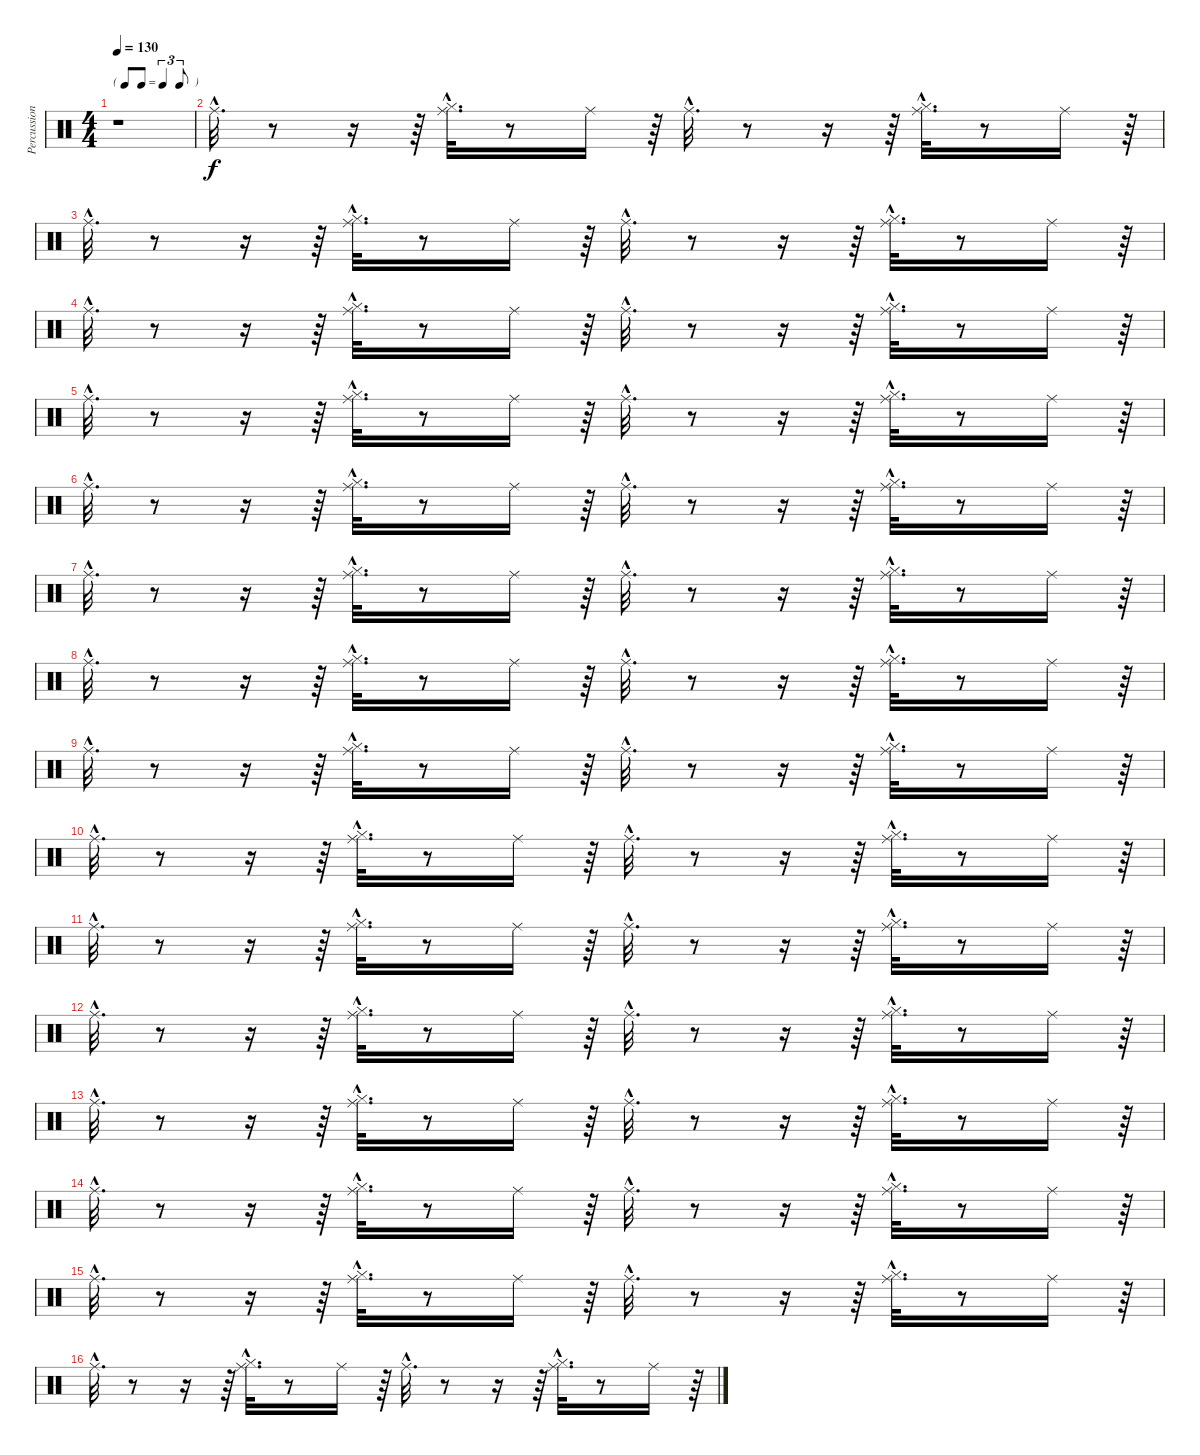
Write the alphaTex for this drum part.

\track ("Percussions" "Percussion") {instrument percussion}
\staff {score}
\articulation defaults
\ts (4 4)
\tf triplet8th
\tempo 130
\clef neutral
\ks c
r.1{dy f} |
"Ride (middle)"{hac}.32{d} r.8 r.16 r.64 ("Hi-Hat (closed)"{hac} "Ride (middle)"{hac}).32{d} r.8 "Ride (middle)".16 r.64 "Ride (middle)"{hac}.32{d} r.8 r.16 r.64 ("Hi-Hat (closed)"{hac} "Ride (middle)"{hac}).32{d} r.8 "Ride (middle)".16 r.64 |
"Ride (middle)"{hac}.32{d} r.8 r.16 r.64 ("Hi-Hat (closed)"{hac} "Ride (middle)"{hac}).32{d} r.8 "Ride (middle)".16 r.64 "Ride (middle)"{hac}.32{d} r.8 r.16 r.64 ("Hi-Hat (closed)"{hac} "Ride (middle)"{hac}).32{d} r.8 "Ride (middle)".16 r.64 |
"Ride (middle)"{hac}.32{d} r.8 r.16 r.64 ("Hi-Hat (closed)"{hac} "Ride (middle)"{hac}).32{d} r.8 "Ride (middle)".16 r.64 "Ride (middle)"{hac}.32{d} r.8 r.16 r.64 ("Hi-Hat (closed)"{hac} "Ride (middle)"{hac}).32{d} r.8 "Ride (middle)".16 r.64 |
"Ride (middle)"{hac}.32{d} r.8 r.16 r.64 ("Hi-Hat (closed)"{hac} "Ride (middle)"{hac}).32{d} r.8 "Ride (middle)".16 r.64 "Ride (middle)"{hac}.32{d} r.8 r.16 r.64 ("Hi-Hat (closed)"{hac} "Ride (middle)"{hac}).32{d} r.8 "Ride (middle)".16 r.64 |
"Ride (middle)"{hac}.32{d} r.8 r.16 r.64 ("Hi-Hat (closed)"{hac} "Ride (middle)"{hac}).32{d} r.8 "Ride (middle)".16 r.64 "Ride (middle)"{hac}.32{d} r.8 r.16 r.64 ("Hi-Hat (closed)"{hac} "Ride (middle)"{hac}).32{d} r.8 "Ride (middle)".16 r.64 |
"Ride (middle)"{hac}.32{d} r.8 r.16 r.64 ("Hi-Hat (closed)"{hac} "Ride (middle)"{hac}).32{d} r.8 "Ride (middle)".16 r.64 "Ride (middle)"{hac}.32{d} r.8 r.16 r.64 ("Hi-Hat (closed)"{hac} "Ride (middle)"{hac}).32{d} r.8 "Ride (middle)".16 r.64 |
"Ride (middle)"{hac}.32{d} r.8 r.16 r.64 ("Hi-Hat (closed)"{hac} "Ride (middle)"{hac}).32{d} r.8 "Ride (middle)".16 r.64 "Ride (middle)"{hac}.32{d} r.8 r.16 r.64 ("Hi-Hat (closed)"{hac} "Ride (middle)"{hac}).32{d} r.8 "Ride (middle)".16 r.64 |
"Ride (middle)"{hac}.32{d} r.8 r.16 r.64 ("Hi-Hat (closed)"{hac} "Ride (middle)"{hac}).32{d} r.8 "Ride (middle)".16 r.64 "Ride (middle)"{hac}.32{d} r.8 r.16 r.64 ("Hi-Hat (closed)"{hac} "Ride (middle)"{hac}).32{d} r.8 "Ride (middle)".16 r.64 |
"Ride (middle)"{hac}.32{d} r.8 r.16 r.64 ("Hi-Hat (closed)"{hac} "Ride (middle)"{hac}).32{d} r.8 "Ride (middle)".16 r.64 "Ride (middle)"{hac}.32{d} r.8 r.16 r.64 ("Hi-Hat (closed)"{hac} "Ride (middle)"{hac}).32{d} r.8 "Ride (middle)".16 r.64 |
"Ride (middle)"{hac}.32{d} r.8 r.16 r.64 ("Hi-Hat (closed)"{hac} "Ride (middle)"{hac}).32{d} r.8 "Ride (middle)".16 r.64 "Ride (middle)"{hac}.32{d} r.8 r.16 r.64 ("Hi-Hat (closed)"{hac} "Ride (middle)"{hac}).32{d} r.8 "Ride (middle)".16 r.64 |
"Ride (middle)"{hac}.32{d} r.8 r.16 r.64 ("Hi-Hat (closed)"{hac} "Ride (middle)"{hac}).32{d} r.8 "Ride (middle)".16 r.64 "Ride (middle)"{hac}.32{d} r.8 r.16 r.64 ("Hi-Hat (closed)"{hac} "Ride (middle)"{hac}).32{d} r.8 "Ride (middle)".16 r.64 |
"Ride (middle)"{hac}.32{d} r.8 r.16 r.64 ("Hi-Hat (closed)"{hac} "Ride (middle)"{hac}).32{d} r.8 "Ride (middle)".16 r.64 "Ride (middle)"{hac}.32{d} r.8 r.16 r.64 ("Hi-Hat (closed)"{hac} "Ride (middle)"{hac}).32{d} r.8 "Ride (middle)".16 r.64 |
"Ride (middle)"{hac}.32{d} r.8 r.16 r.64 ("Hi-Hat (closed)"{hac} "Ride (middle)"{hac}).32{d} r.8 "Ride (middle)".16 r.64 "Ride (middle)"{hac}.32{d} r.8 r.16 r.64 ("Hi-Hat (closed)"{hac} "Ride (middle)"{hac}).32{d} r.8 "Ride (middle)".16 r.64 |
"Ride (middle)"{hac}.32{d} r.8 r.16 r.64 ("Hi-Hat (closed)"{hac} "Ride (middle)"{hac}).32{d} r.8 "Ride (middle)".16 r.64 "Ride (middle)"{hac}.32{d} r.8 r.16 r.64 ("Hi-Hat (closed)"{hac} "Ride (middle)"{hac}).32{d} r.8 "Ride (middle)".16 r.64 |
"Ride (middle)"{hac}.32{d} r.8 r.16 r.64 ("Hi-Hat (closed)"{hac} "Ride (middle)"{hac}).32{d} r.8 "Ride (middle)".16 r.64 "Ride (middle)"{hac}.32{d} r.8 r.16 r.64 ("Hi-Hat (closed)"{hac} "Ride (middle)"{hac}).32{d} r.8 "Ride (middle)".16 r.64
